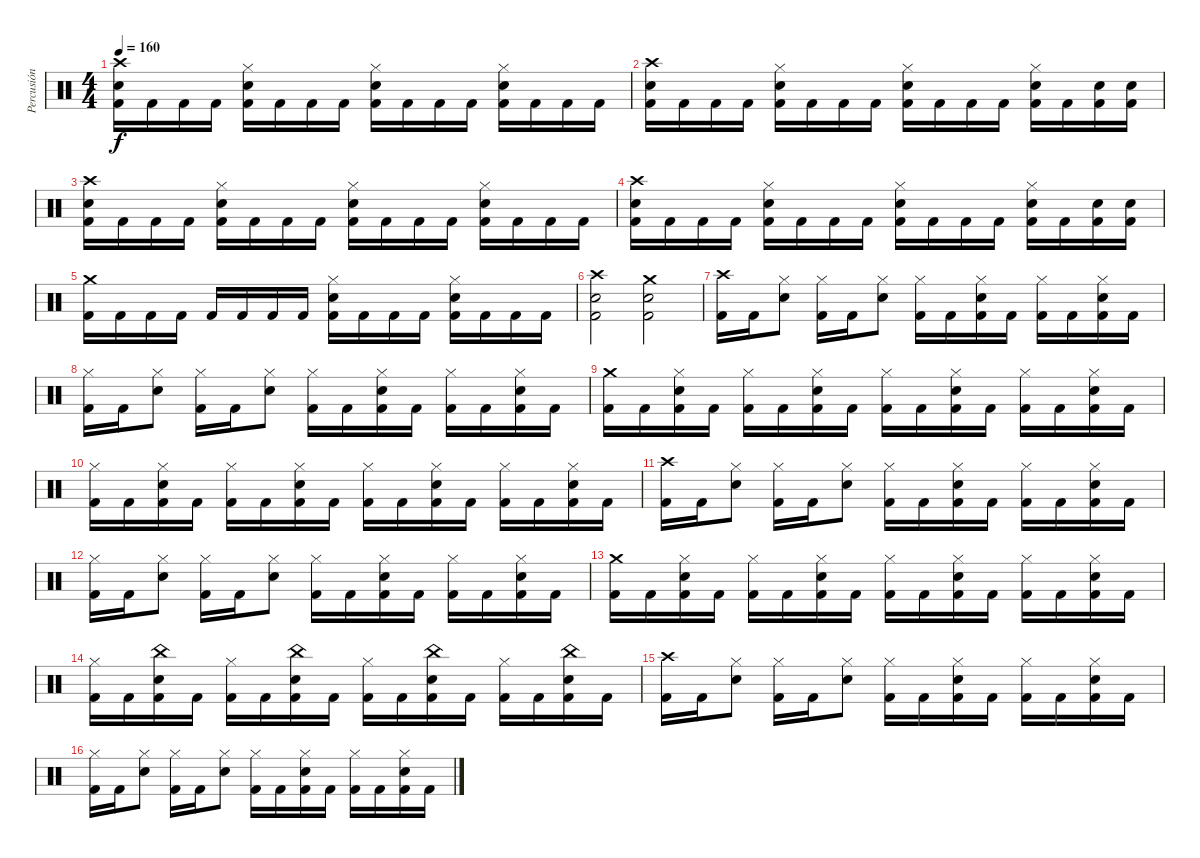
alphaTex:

\track ("Percusión" "Percusión") {instrument percussion}
\staff {score}
\articulation defaults
\ts (4 4)
\tempo 160
\clef neutral
\ks c
("Crash high (hit)" "Electric Snare (hit)" "Kick (hit) 2").16{dy f} "Kick (hit) 2".16 "Kick (hit) 2".16 "Kick (hit) 2".16 ("Hi-Hat (closed)" "Electric Snare (hit)" "Kick (hit) 2").16 "Kick (hit) 2".16 "Kick (hit) 2".16 "Kick (hit) 2".16 ("Hi-Hat (closed)" "Electric Snare (hit)" "Kick (hit) 2").16 "Kick (hit) 2".16 "Kick (hit) 2".16 "Kick (hit) 2".16 ("Hi-Hat (closed)" "Electric Snare (hit)" "Kick (hit) 2").16 "Kick (hit) 2".16 "Kick (hit) 2".16 "Kick (hit) 2".16 |
("Crash high (hit)" "Electric Snare (hit)" "Kick (hit) 2").16 "Kick (hit) 2".16 "Kick (hit) 2".16 "Kick (hit) 2".16 ("Hi-Hat (closed)" "Electric Snare (hit)" "Kick (hit) 2").16 "Kick (hit) 2".16 "Kick (hit) 2".16 "Kick (hit) 2".16 ("Hi-Hat (closed)" "Electric Snare (hit)" "Kick (hit) 2").16 "Kick (hit) 2".16 "Kick (hit) 2".16 "Kick (hit) 2".16 ("Hi-Hat (closed)" "Electric Snare (hit)" "Kick (hit) 2").16 "Kick (hit) 2".16 ("Electric Snare (hit)" "Kick (hit) 2").16 ("Electric Snare (hit)" "Kick (hit) 2").16 |
("Crash high (hit)" "Electric Snare (hit)" "Kick (hit) 2").16 "Kick (hit) 2".16 "Kick (hit) 2".16 "Kick (hit) 2".16 ("Hi-Hat (closed)" "Electric Snare (hit)" "Kick (hit) 2").16 "Kick (hit) 2".16 "Kick (hit) 2".16 "Kick (hit) 2".16 ("Hi-Hat (closed)" "Electric Snare (hit)" "Kick (hit) 2").16 "Kick (hit) 2".16 "Kick (hit) 2".16 "Kick (hit) 2".16 ("Hi-Hat (closed)" "Electric Snare (hit)" "Kick (hit) 2").16 "Kick (hit) 2".16 "Kick (hit) 2".16 "Kick (hit) 2".16 |
("Crash high (hit)" "Electric Snare (hit)" "Kick (hit) 2").16 "Kick (hit) 2".16 "Kick (hit) 2".16 "Kick (hit) 2".16 ("Hi-Hat (closed)" "Electric Snare (hit)" "Kick (hit) 2").16 "Kick (hit) 2".16 "Kick (hit) 2".16 "Kick (hit) 2".16 ("Hi-Hat (closed)" "Electric Snare (hit)" "Kick (hit) 2").16 "Kick (hit) 2".16 "Kick (hit) 2".16 "Kick (hit) 2".16 ("Hi-Hat (closed)" "Electric Snare (hit)" "Kick (hit) 2").16 "Kick (hit) 2".16 ("Electric Snare (hit)" "Kick (hit) 2").16 ("Electric Snare (hit)" "Kick (hit) 2").16 |
("Crash medium (hit)" "Kick (hit) 2").16 "Kick (hit) 2".16 "Kick (hit) 2".16 "Kick (hit) 2".16 "Kick (hit) 2".16 "Kick (hit) 2".16 "Kick (hit) 2".16 "Kick (hit) 2".16 ("Hi-Hat (closed)" "Electric Snare (hit)" "Kick (hit) 2").16 "Kick (hit) 2".16 "Kick (hit) 2".16 "Kick (hit) 2".16 ("Hi-Hat (closed)" "Electric Snare (hit)" "Kick (hit) 2").16 "Kick (hit) 2".16 "Kick (hit) 2".16 "Kick (hit) 2".16 |
("Crash high (hit)" "Electric Snare (hit)" "Kick (hit) 2").2 ("Crash medium (hit)" "Electric Snare (hit)" "Kick (hit) 2").2 |
("Crash high (hit)" "Kick (hit) 2").16 "Kick (hit) 2".16 ("Hi-Hat (closed)" "Electric Snare (hit)").8 ("Hi-Hat (closed)" "Kick (hit) 2").16 "Kick (hit) 2".16 ("Hi-Hat (closed)" "Electric Snare (hit)").8 ("Hi-Hat (closed)" "Kick (hit) 2").16 "Kick (hit) 2".16 ("Hi-Hat (closed)" "Electric Snare (hit)" "Kick (hit) 2").16 "Kick (hit) 2".16 ("Hi-Hat (closed)" "Kick (hit) 2").16 "Kick (hit) 2".16 ("Hi-Hat (closed)" "Electric Snare (hit)" "Kick (hit) 2").16 "Kick (hit) 2".16 |
("Hi-Hat (closed)" "Kick (hit) 2").16 "Kick (hit) 2".16 ("Hi-Hat (closed)" "Electric Snare (hit)").8 ("Hi-Hat (closed)" "Kick (hit) 2").16 "Kick (hit) 2".16 ("Hi-Hat (closed)" "Electric Snare (hit)").8 ("Hi-Hat (closed)" "Kick (hit) 2").16 "Kick (hit) 2".16 ("Hi-Hat (closed)" "Electric Snare (hit)" "Kick (hit) 2").16 "Kick (hit) 2".16 ("Hi-Hat (closed)" "Kick (hit) 2").16 "Kick (hit) 2".16 ("Hi-Hat (closed)" "Electric Snare (hit)" "Kick (hit) 2").16 "Kick (hit) 2".16 |
("Crash medium (hit)" "Kick (hit) 2").16 "Kick (hit) 2".16 ("Hi-Hat (closed)" "Electric Snare (hit)" "Kick (hit) 2").16 "Kick (hit) 2".16 ("Hi-Hat (closed)" "Kick (hit) 2").16 "Kick (hit) 2".16 ("Hi-Hat (closed)" "Electric Snare (hit)" "Kick (hit) 2").16 "Kick (hit) 2".16 ("Hi-Hat (closed)" "Kick (hit) 2").16 "Kick (hit) 2".16 ("Hi-Hat (closed)" "Electric Snare (hit)" "Kick (hit) 2").16 "Kick (hit) 2".16 ("Hi-Hat (closed)" "Kick (hit) 2").16 "Kick (hit) 2".16 ("Hi-Hat (closed)" "Electric Snare (hit)" "Kick (hit) 2").16 "Kick (hit) 2".16 |
("Hi-Hat (closed)" "Kick (hit) 2").16 "Kick (hit) 2".16 ("Hi-Hat (closed)" "Electric Snare (hit)" "Kick (hit) 2").16 "Kick (hit) 2".16 ("Hi-Hat (closed)" "Kick (hit) 2").16 "Kick (hit) 2".16 ("Hi-Hat (closed)" "Electric Snare (hit)" "Kick (hit) 2").16 "Kick (hit) 2".16 ("Hi-Hat (closed)" "Kick (hit) 2").16 "Kick (hit) 2".16 ("Hi-Hat (closed)" "Electric Snare (hit)" "Kick (hit) 2").16 "Kick (hit) 2".16 ("Hi-Hat (closed)" "Kick (hit) 2").16 "Kick (hit) 2".16 ("Hi-Hat (closed)" "Electric Snare (hit)" "Kick (hit) 2").16 "Kick (hit) 2".16 |
("Crash high (hit)" "Kick (hit) 2").16 "Kick (hit) 2".16 ("Hi-Hat (closed)" "Electric Snare (hit)").8 ("Hi-Hat (closed)" "Kick (hit) 2").16 "Kick (hit) 2".16 ("Hi-Hat (closed)" "Electric Snare (hit)").8 ("Hi-Hat (closed)" "Kick (hit) 2").16 "Kick (hit) 2".16 ("Hi-Hat (closed)" "Electric Snare (hit)" "Kick (hit) 2").16 "Kick (hit) 2".16 ("Hi-Hat (closed)" "Kick (hit) 2").16 "Kick (hit) 2".16 ("Hi-Hat (closed)" "Electric Snare (hit)" "Kick (hit) 2").16 "Kick (hit) 2".16 |
("Hi-Hat (closed)" "Kick (hit) 2").16 "Kick (hit) 2".16 ("Hi-Hat (closed)" "Electric Snare (hit)").8 ("Hi-Hat (closed)" "Kick (hit) 2").16 "Kick (hit) 2".16 ("Hi-Hat (closed)" "Electric Snare (hit)").8 ("Hi-Hat (closed)" "Kick (hit) 2").16 "Kick (hit) 2".16 ("Hi-Hat (closed)" "Electric Snare (hit)" "Kick (hit) 2").16 "Kick (hit) 2".16 ("Hi-Hat (closed)" "Kick (hit) 2").16 "Kick (hit) 2".16 ("Hi-Hat (closed)" "Electric Snare (hit)" "Kick (hit) 2").16 "Kick (hit) 2".16 |
("Crash medium (hit)" "Kick (hit) 2").16 "Kick (hit) 2".16 ("Hi-Hat (closed)" "Electric Snare (hit)" "Kick (hit) 2").16 "Kick (hit) 2".16 ("Hi-Hat (closed)" "Kick (hit) 2").16 "Kick (hit) 2".16 ("Hi-Hat (closed)" "Electric Snare (hit)" "Kick (hit) 2").16 "Kick (hit) 2".16 ("Hi-Hat (closed)" "Kick (hit) 2").16 "Kick (hit) 2".16 ("Hi-Hat (closed)" "Electric Snare (hit)" "Kick (hit) 2").16 "Kick (hit) 2".16 ("Hi-Hat (closed)" "Kick (hit) 2").16 "Kick (hit) 2".16 ("Hi-Hat (closed)" "Electric Snare (hit)" "Kick (hit) 2").16 "Kick (hit) 2".16 |
("Hi-Hat (closed)" "Kick (hit) 2").16 "Kick (hit) 2".16 ("China (hit)" "Electric Snare (hit)" "Kick (hit) 2").16 "Kick (hit) 2".16 ("Hi-Hat (closed)" "Kick (hit) 2").16 "Kick (hit) 2".16 ("China (hit)" "Electric Snare (hit)" "Kick (hit) 2").16 "Kick (hit) 2".16 ("Hi-Hat (closed)" "Kick (hit) 2").16 "Kick (hit) 2".16 ("China (hit)" "Electric Snare (hit)" "Kick (hit) 2").16 "Kick (hit) 2".16 ("Hi-Hat (closed)" "Kick (hit) 2").16 "Kick (hit) 2".16 ("China (hit)" "Electric Snare (hit)" "Kick (hit) 2").16 "Kick (hit) 2".16 |
("Crash high (hit)" "Kick (hit) 2").16 "Kick (hit) 2".16 ("Hi-Hat (closed)" "Electric Snare (hit)").8 ("Hi-Hat (closed)" "Kick (hit) 2").16 "Kick (hit) 2".16 ("Hi-Hat (closed)" "Electric Snare (hit)").8 ("Hi-Hat (closed)" "Kick (hit) 2").16 "Kick (hit) 2".16 ("Hi-Hat (closed)" "Electric Snare (hit)" "Kick (hit) 2").16 "Kick (hit) 2".16 ("Hi-Hat (closed)" "Kick (hit) 2").16 "Kick (hit) 2".16 ("Hi-Hat (closed)" "Electric Snare (hit)" "Kick (hit) 2").16 "Kick (hit) 2".16 |
("Hi-Hat (closed)" "Kick (hit) 2").16 "Kick (hit) 2".16 ("Hi-Hat (closed)" "Electric Snare (hit)").8 ("Hi-Hat (closed)" "Kick (hit) 2").16 "Kick (hit) 2".16 ("Hi-Hat (closed)" "Electric Snare (hit)").8 ("Hi-Hat (closed)" "Kick (hit) 2").16 "Kick (hit) 2".16 ("Hi-Hat (closed)" "Electric Snare (hit)" "Kick (hit) 2").16 "Kick (hit) 2".16 ("Hi-Hat (closed)" "Kick (hit) 2").16 "Kick (hit) 2".16 ("Hi-Hat (closed)" "Electric Snare (hit)" "Kick (hit) 2").16 "Kick (hit) 2".16
